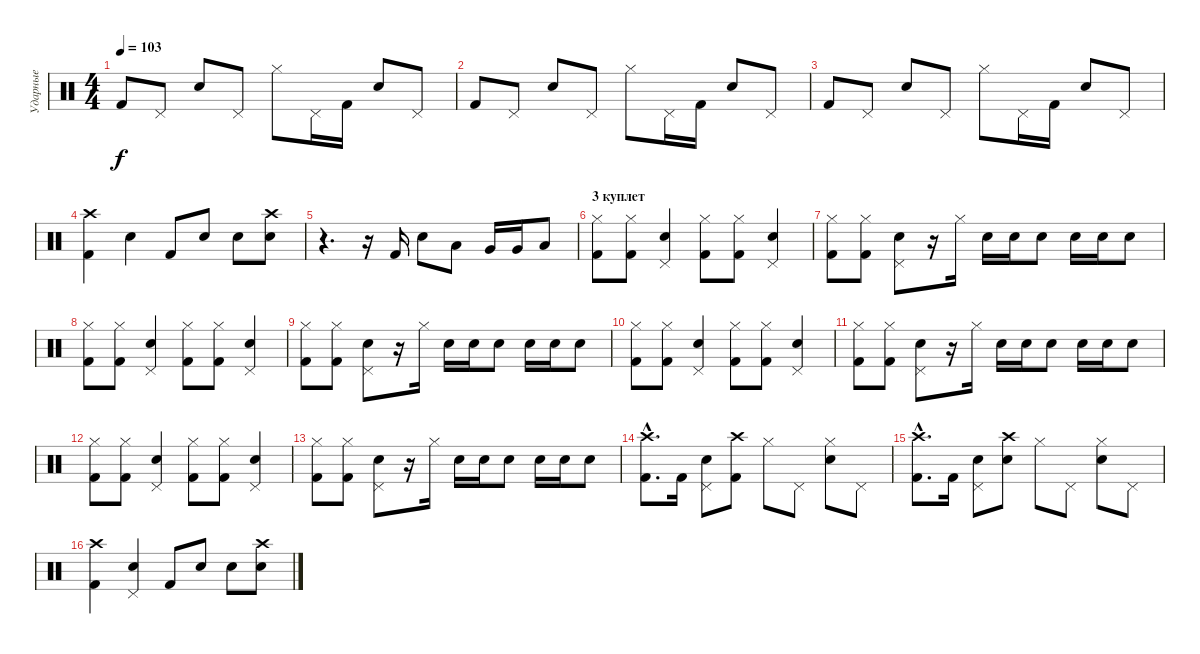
\track ("Ударные" "Ударные") {instrument percussion}
\staff {score}
\articulation defaults
\ts (4 4)
\tempo 103
\clef neutral
\ks c "Kick (hit) 2".8{dy f} "Pedal Hi-Hat (hit)".8 "Snare (hit) 2".8 "Pedal Hi-Hat (hit)".8 "Hi-Hat (closed)".8 "Pedal Hi-Hat (hit)".16 "Kick (hit) 2".16 "Snare (hit) 2".8 "Pedal Hi-Hat (hit)".8
|
"Kick (hit) 2".8 "Pedal Hi-Hat (hit)".8 "Snare (hit) 2".8 "Pedal Hi-Hat (hit)".8 "Hi-Hat (closed)".8 "Pedal Hi-Hat (hit)".16 "Kick (hit) 2".16 "Snare (hit) 2".8 "Pedal Hi-Hat (hit)".8 |
"Kick (hit) 2".8 "Pedal Hi-Hat (hit)".8 "Snare (hit) 2".8 "Pedal Hi-Hat (hit)".8 "Hi-Hat (closed)".8 "Pedal Hi-Hat (hit)".16 "Kick (hit) 2".16 "Snare (hit) 2".8 "Pedal Hi-Hat (hit)".8 |
("Crash high (hit)" "Kick (hit) 2").4 "Snare (hit) 2".4 "Kick (hit) 2".8 "Snare (hit) 2".8 "Snare (hit) 2".8 ("Crash high (hit)" "Snare (hit) 2").8 |
r.4{d} r.16 "Kick (hit) 2".16 "Snare (hit) 2".8 "Low Tom (hit)".8 "Very Low Tom (hit)".16 "Very Low Tom (hit)".16 "Low Floor Tom (hit)".8 |
\section ("" "3 куплет")
("Hi-Hat (closed)" "Kick (hit) 2").8 ("Hi-Hat (closed)" "Kick (hit) 2").8 ("Pedal Hi-Hat (hit)" "Snare (hit) 2").4 ("Hi-Hat (closed)" "Kick (hit) 2").8 ("Hi-Hat (closed)" "Kick (hit) 2").8 ("Pedal Hi-Hat (hit)" "Snare (hit) 2").4 |
("Hi-Hat (closed)" "Kick (hit) 2").8 ("Hi-Hat (closed)" "Kick (hit) 2").8 ("Pedal Hi-Hat (hit)" "Snare (hit) 2").8 r.16 "Hi-Hat (closed)".16 "Snare (hit) 2".16 "Snare (hit) 2".16 "Snare (hit) 2".8 "Snare (hit) 2".16 "Snare (hit) 2".16 "Snare (hit) 2".8 |
("Hi-Hat (closed)" "Kick (hit) 2").8 ("Hi-Hat (closed)" "Kick (hit) 2").8 ("Pedal Hi-Hat (hit)" "Snare (hit) 2").4 ("Hi-Hat (closed)" "Kick (hit) 2").8 ("Hi-Hat (closed)" "Kick (hit) 2").8 ("Pedal Hi-Hat (hit)" "Snare (hit) 2").4 |
("Hi-Hat (closed)" "Kick (hit) 2").8 ("Hi-Hat (closed)" "Kick (hit) 2").8 ("Pedal Hi-Hat (hit)" "Snare (hit) 2").8 r.16 "Hi-Hat (closed)".16 "Snare (hit) 2".16 "Snare (hit) 2".16 "Snare (hit) 2".8 "Snare (hit) 2".16 "Snare (hit) 2".16 "Snare (hit) 2".8 |
("Hi-Hat (closed)" "Kick (hit) 2").8 ("Hi-Hat (closed)" "Kick (hit) 2").8 ("Pedal Hi-Hat (hit)" "Snare (hit) 2").4 ("Hi-Hat (closed)" "Kick (hit) 2").8 ("Hi-Hat (closed)" "Kick (hit) 2").8 ("Pedal Hi-Hat (hit)" "Snare (hit) 2").4 |
("Hi-Hat (closed)" "Kick (hit) 2").8 ("Hi-Hat (closed)" "Kick (hit) 2").8 ("Pedal Hi-Hat (hit)" "Snare (hit) 2").8 r.16 "Hi-Hat (closed)".16 "Snare (hit) 2".16 "Snare (hit) 2".16 "Snare (hit) 2".8 "Snare (hit) 2".16 "Snare (hit) 2".16 "Snare (hit) 2".8 |
("Hi-Hat (closed)" "Kick (hit) 2").8 ("Hi-Hat (closed)" "Kick (hit) 2").8 ("Pedal Hi-Hat (hit)" "Snare (hit) 2").4 ("Hi-Hat (closed)" "Kick (hit) 2").8 ("Hi-Hat (closed)" "Kick (hit) 2").8 ("Pedal Hi-Hat (hit)" "Snare (hit) 2").4 |
("Hi-Hat (closed)" "Kick (hit) 2").8 ("Hi-Hat (closed)" "Kick (hit) 2").8 ("Pedal Hi-Hat (hit)" "Snare (hit) 2").8 r.16 "Hi-Hat (closed)".16 "Snare (hit) 2".16 "Snare (hit) 2".16 "Snare (hit) 2".8 "Snare (hit) 2".16 "Snare (hit) 2".16 "Snare (hit) 2".8 |
("Crash high (hit)"{hac} "Kick (hit) 2"{hac}).8{d} "Kick (hit) 2".16 ("Pedal Hi-Hat (hit)" "Snare (hit) 2").8 ("Crash high (hit)" "Kick (hit) 2").8 "Hi-Hat (closed)".8 "Pedal Hi-Hat (hit)".8 ("Hi-Hat (closed)" "Snare (hit) 2").8 "Pedal Hi-Hat (hit)".8 |
("Crash high (hit)"{hac} "Kick (hit) 2"{hac}).8{d} "Kick (hit) 2".16 ("Pedal Hi-Hat (hit)" "Snare (hit) 2").8 ("Crash high (hit)" "Snare (hit) 2").8 "Hi-Hat (closed)".8 "Pedal Hi-Hat (hit)".8 ("Hi-Hat (closed)" "Snare (hit) 2").8 "Pedal Hi-Hat (hit)".8 |
("Crash high (hit)" "Kick (hit) 2").4 ("Pedal Hi-Hat (hit)" "Snare (hit) 2").4 "Kick (hit) 2".8 "Snare (hit) 2".8 "Snare (hit) 2".8 ("Crash high (hit)" "Snare (hit) 2").8
